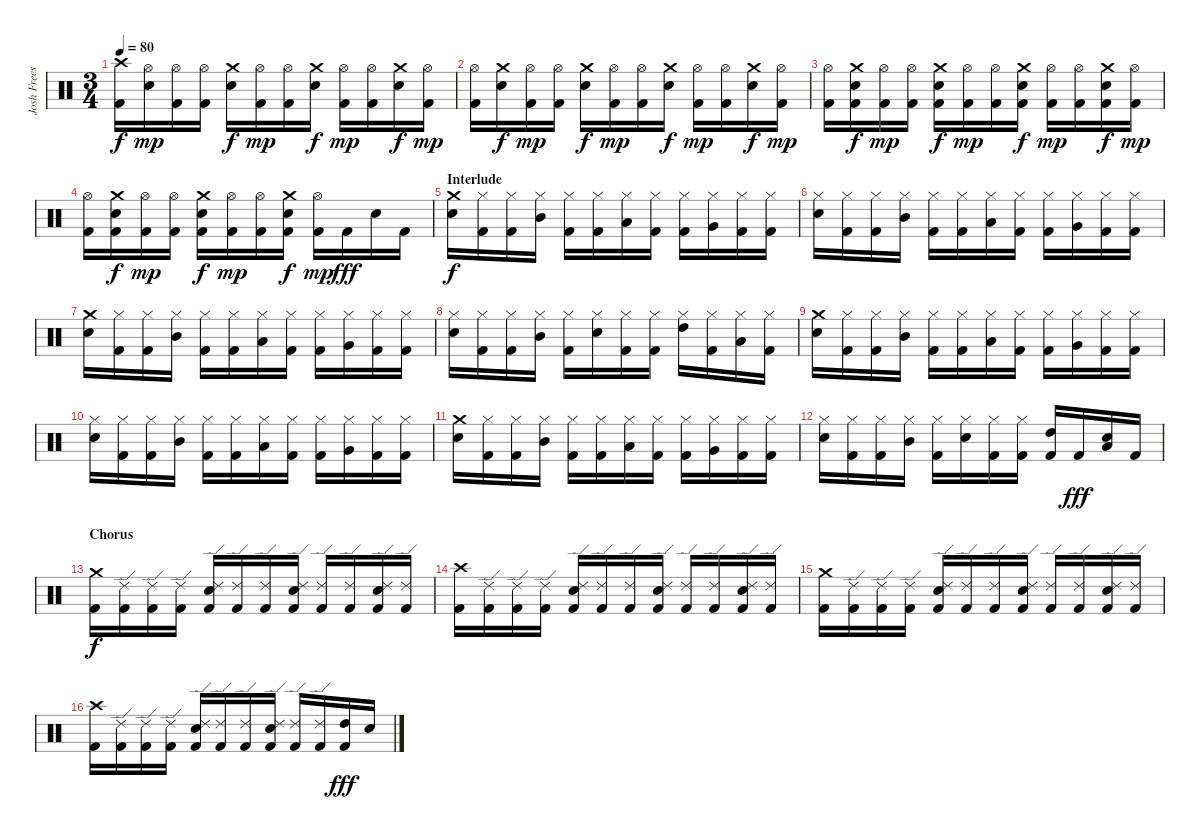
\track ("Josh Freese" "Josh Frees") {instrument percussion}
\staff {score}
\articulation defaults
\ts (3 4)
\tempo 80
\clef neutral
\ks c
("Crash high (hit)" "Kick (hit) 2").16{dy f} ("Hi-Hat (open)" "Electric Snare (hit)").16{dy mp} ("Hi-Hat (open)" "Kick (hit) 2").16 ("Hi-Hat (open)" "Kick (hit) 2").16 ("Crash medium (hit)" "Electric Snare (hit)").16{dy f} ("Hi-Hat (open)" "Kick (hit) 2").16{dy mp} ("Hi-Hat (open)" "Kick (hit) 2").16 ("Crash medium (hit)" "Electric Snare (hit)").16{dy f} ("Hi-Hat (open)" "Kick (hit) 2").16{dy mp} ("Hi-Hat (open)" "Kick (hit) 2").16 ("Crash medium (hit)" "Electric Snare (hit)").16{dy f} ("Hi-Hat (open)" "Kick (hit) 2").16{dy mp} |
("Hi-Hat (open)" "Kick (hit) 2").16 ("Crash medium (hit)" "Electric Snare (hit)").16{dy f} ("Hi-Hat (open)" "Kick (hit) 2").16{dy mp} ("Hi-Hat (open)" "Kick (hit) 2").16 ("Crash medium (hit)" "Electric Snare (hit)").16{dy f} ("Hi-Hat (open)" "Kick (hit) 2").16{dy mp} ("Hi-Hat (open)" "Kick (hit) 2").16 ("Crash medium (hit)" "Electric Snare (hit)").16{dy f} ("Hi-Hat (open)" "Kick (hit) 2").16{dy mp} ("Hi-Hat (open)" "Kick (hit) 2").16 ("Crash medium (hit)" "Electric Snare (hit)").16{dy f} ("Hi-Hat (open)" "Kick (hit) 2").16{dy mp} |
("Hi-Hat (open)" "Kick (hit) 2").16 ("Crash medium (hit)" "Electric Snare (hit)" "Kick (hit) 2").16{dy f} ("Hi-Hat (open)" "Kick (hit) 2").16{dy mp} ("Hi-Hat (open)" "Kick (hit) 2").16 ("Crash medium (hit)" "Electric Snare (hit)" "Kick (hit) 2").16{dy f} ("Hi-Hat (open)" "Kick (hit) 2").16{dy mp} ("Hi-Hat (open)" "Kick (hit) 2").16 ("Crash medium (hit)" "Electric Snare (hit)" "Kick (hit) 2").16{dy f} ("Hi-Hat (open)" "Kick (hit) 2").16{dy mp} ("Hi-Hat (open)" "Kick (hit) 2").16 ("Crash medium (hit)" "Electric Snare (hit)" "Kick (hit) 2").16{dy f} ("Hi-Hat (open)" "Kick (hit) 2").16{dy mp} |
("Hi-Hat (open)" "Kick (hit) 2").16 ("Crash medium (hit)" "Electric Snare (hit)" "Kick (hit) 2").16{dy f} ("Hi-Hat (open)" "Kick (hit) 2").16{dy mp} ("Hi-Hat (open)" "Kick (hit) 2").16 ("Crash medium (hit)" "Electric Snare (hit)" "Kick (hit) 2").16{dy f} ("Hi-Hat (open)" "Kick (hit) 2").16{dy mp} ("Hi-Hat (open)" "Kick (hit) 2").16 ("Crash medium (hit)" "Electric Snare (hit)" "Kick (hit) 2").16{dy f} ("Hi-Hat (open)" "Kick (hit) 2").16{dy mp} "Kick (hit) 2".16{dy fff} "Electric Snare (hit)".16 "Kick (hit) 2".16 |
\section ("" "Interlude")
("Crash medium (hit)" "Electric Snare (hit)").16{dy f} ("Hi-Hat (closed)" "Kick (hit) 2").16 ("Hi-Hat (closed)" "Kick (hit) 2").16 ("Hi-Hat (closed)" "Mid Tom (hit)").16 ("Hi-Hat (closed)" "Kick (hit) 2").16 ("Hi-Hat (closed)" "Kick (hit) 2").16 ("Hi-Hat (closed)" "Low Tom (hit)").16 ("Hi-Hat (closed)" "Kick (hit) 2").16 ("Hi-Hat (closed)" "Kick (hit) 2").16 ("Hi-Hat (closed)" "Very Low Tom (hit)").16 ("Hi-Hat (closed)" "Kick (hit) 2").16 ("Hi-Hat (closed)" "Kick (hit) 2").16 |
("Hi-Hat (closed)" "Electric Snare (hit)").16 ("Hi-Hat (closed)" "Kick (hit) 2").16 ("Hi-Hat (closed)" "Kick (hit) 2").16 ("Hi-Hat (closed)" "Mid Tom (hit)").16 ("Hi-Hat (closed)" "Kick (hit) 2").16 ("Hi-Hat (closed)" "Kick (hit) 2").16 ("Hi-Hat (closed)" "Low Tom (hit)").16 ("Hi-Hat (closed)" "Kick (hit) 2").16 ("Hi-Hat (closed)" "Kick (hit) 2").16 ("Hi-Hat (closed)" "Very Low Tom (hit)").16 ("Hi-Hat (closed)" "Kick (hit) 2").16 ("Hi-Hat (closed)" "Kick (hit) 2").16 |
("Crash medium (hit)" "Electric Snare (hit)").16 ("Hi-Hat (closed)" "Kick (hit) 2").16 ("Hi-Hat (closed)" "Kick (hit) 2").16 ("Hi-Hat (closed)" "Mid Tom (hit)").16 ("Hi-Hat (closed)" "Kick (hit) 2").16 ("Hi-Hat (closed)" "Kick (hit) 2").16 ("Hi-Hat (closed)" "Low Tom (hit)").16 ("Hi-Hat (closed)" "Kick (hit) 2").16 ("Hi-Hat (closed)" "Kick (hit) 2").16 ("Hi-Hat (closed)" "Very Low Tom (hit)").16 ("Hi-Hat (closed)" "Kick (hit) 2").16 ("Hi-Hat (closed)" "Kick (hit) 2").16 |
("Hi-Hat (closed)" "Electric Snare (hit)").16 ("Hi-Hat (closed)" "Kick (hit) 2").16 ("Hi-Hat (closed)" "Kick (hit) 2").16 ("Hi-Hat (closed)" "Mid Tom (hit)").16 ("Hi-Hat (closed)" "Kick (hit) 2").16 ("Hi-Hat (closed)" "Electric Snare (hit)").16 ("Hi-Hat (closed)" "Kick (hit) 2").16 ("Hi-Hat (closed)" "Kick (hit) 2").16 ("Hi-Hat (closed)" "High Tom (hit)").16 ("Hi-Hat (closed)" "Kick (hit) 2").16 ("Hi-Hat (closed)" "Low Tom (hit)").16 ("Hi-Hat (closed)" "Kick (hit) 2").16 |
("Crash medium (hit)" "Electric Snare (hit)").16 ("Hi-Hat (closed)" "Kick (hit) 2").16 ("Hi-Hat (closed)" "Kick (hit) 2").16 ("Hi-Hat (closed)" "Mid Tom (hit)").16 ("Hi-Hat (closed)" "Kick (hit) 2").16 ("Hi-Hat (closed)" "Kick (hit) 2").16 ("Hi-Hat (closed)" "Low Tom (hit)").16 ("Hi-Hat (closed)" "Kick (hit) 2").16 ("Hi-Hat (closed)" "Kick (hit) 2").16 ("Hi-Hat (closed)" "Very Low Tom (hit)").16 ("Hi-Hat (closed)" "Kick (hit) 2").16 ("Hi-Hat (closed)" "Kick (hit) 2").16 |
("Hi-Hat (closed)" "Electric Snare (hit)").16 ("Hi-Hat (closed)" "Kick (hit) 2").16 ("Hi-Hat (closed)" "Kick (hit) 2").16 ("Hi-Hat (closed)" "Mid Tom (hit)").16 ("Hi-Hat (closed)" "Kick (hit) 2").16 ("Hi-Hat (closed)" "Kick (hit) 2").16 ("Hi-Hat (closed)" "Low Tom (hit)").16 ("Hi-Hat (closed)" "Kick (hit) 2").16 ("Hi-Hat (closed)" "Kick (hit) 2").16 ("Hi-Hat (closed)" "Very Low Tom (hit)").16 ("Hi-Hat (closed)" "Kick (hit) 2").16 ("Hi-Hat (closed)" "Kick (hit) 2").16 |
("Crash medium (hit)" "Electric Snare (hit)").16 ("Hi-Hat (closed)" "Kick (hit) 2").16 ("Hi-Hat (closed)" "Kick (hit) 2").16 ("Hi-Hat (closed)" "Mid Tom (hit)").16 ("Hi-Hat (closed)" "Kick (hit) 2").16 ("Hi-Hat (closed)" "Kick (hit) 2").16 ("Hi-Hat (closed)" "Low Tom (hit)").16 ("Hi-Hat (closed)" "Kick (hit) 2").16 ("Hi-Hat (closed)" "Kick (hit) 2").16 ("Hi-Hat (closed)" "Very Low Tom (hit)").16 ("Hi-Hat (closed)" "Kick (hit) 2").16 ("Hi-Hat (closed)" "Kick (hit) 2").16 |
("Hi-Hat (closed)" "Electric Snare (hit)").16 ("Hi-Hat (closed)" "Kick (hit) 2").16 ("Hi-Hat (closed)" "Kick (hit) 2").16 ("Hi-Hat (closed)" "Mid Tom (hit)").16 ("Hi-Hat (closed)" "Kick (hit) 2").16 ("Hi-Hat (closed)" "Electric Snare (hit)").16 ("Hi-Hat (closed)" "Kick (hit) 2").16 ("Hi-Hat (closed)" "Kick (hit) 2").16 ("High Tom (hit)" "Kick (hit) 2").16 "Kick (hit) 2".16{dy fff} ("Electric Snare (hit)" "Low Floor Tom (hit)").16 "Kick (hit) 2".16 |
\section ("" "Chorus")
("Crash medium (hit)" "Kick (hit) 2").16{dy f} ("Ride (edge) 2" "Kick (hit) 2").16 ("Ride (edge) 2" "Kick (hit) 2").16 ("Ride (edge) 2" "Kick (hit) 2").16 ("Ride (edge) 2" "Electric Snare (hit)" "Kick (hit) 2").16 ("Ride (edge) 2" "Kick (hit) 2").16 ("Ride (edge) 2" "Kick (hit) 2").16 ("Ride (edge) 2" "Electric Snare (hit)" "Kick (hit) 2").16 ("Ride (edge) 2" "Kick (hit) 2").16 ("Ride (edge) 2" "Kick (hit) 2").16 ("Ride (edge) 2" "Electric Snare (hit)" "Kick (hit) 2").16 ("Ride (edge) 2" "Kick (hit) 2").16 |
("Crash high (hit)" "Kick (hit) 2").16 ("Ride (edge) 2" "Kick (hit) 2").16 ("Ride (edge) 2" "Kick (hit) 2").16 ("Ride (edge) 2" "Kick (hit) 2").16 ("Ride (edge) 2" "Electric Snare (hit)" "Kick (hit) 2").16 ("Ride (edge) 2" "Kick (hit) 2").16 ("Ride (edge) 2" "Kick (hit) 2").16 ("Ride (edge) 2" "Electric Snare (hit)" "Kick (hit) 2").16 ("Ride (edge) 2" "Kick (hit) 2").16 ("Ride (edge) 2" "Kick (hit) 2").16 ("Ride (edge) 2" "Electric Snare (hit)" "Kick (hit) 2").16 ("Ride (edge) 2" "Kick (hit) 2").16 |
("Crash medium (hit)" "Kick (hit) 2").16 ("Ride (edge) 2" "Kick (hit) 2").16 ("Ride (edge) 2" "Kick (hit) 2").16 ("Ride (edge) 2" "Kick (hit) 2").16 ("Ride (edge) 2" "Electric Snare (hit)" "Kick (hit) 2").16 ("Ride (edge) 2" "Kick (hit) 2").16 ("Ride (edge) 2" "Kick (hit) 2").16 ("Ride (edge) 2" "Electric Snare (hit)" "Kick (hit) 2").16 ("Ride (edge) 2" "Kick (hit) 2").16 ("Ride (edge) 2" "Kick (hit) 2").16 ("Ride (edge) 2" "Electric Snare (hit)" "Kick (hit) 2").16 ("Ride (edge) 2" "Kick (hit) 2").16 |
("Crash high (hit)" "Kick (hit) 2").16 ("Ride (edge) 2" "Kick (hit) 2").16 ("Ride (edge) 2" "Kick (hit) 2").16 ("Ride (edge) 2" "Kick (hit) 2").16 ("Ride (edge) 2" "Electric Snare (hit)" "Kick (hit) 2").16 ("Ride (edge) 2" "Kick (hit) 2").16 ("Ride (edge) 2" "Kick (hit) 2").16 ("Ride (edge) 2" "Electric Snare (hit)" "Kick (hit) 2").16 ("Ride (edge) 2" "Kick (hit) 2").16 ("Ride (edge) 2" "Kick (hit) 2").16 ("High Tom (hit)" "Kick (hit) 2").16{dy fff} "Electric Snare (hit)".16
